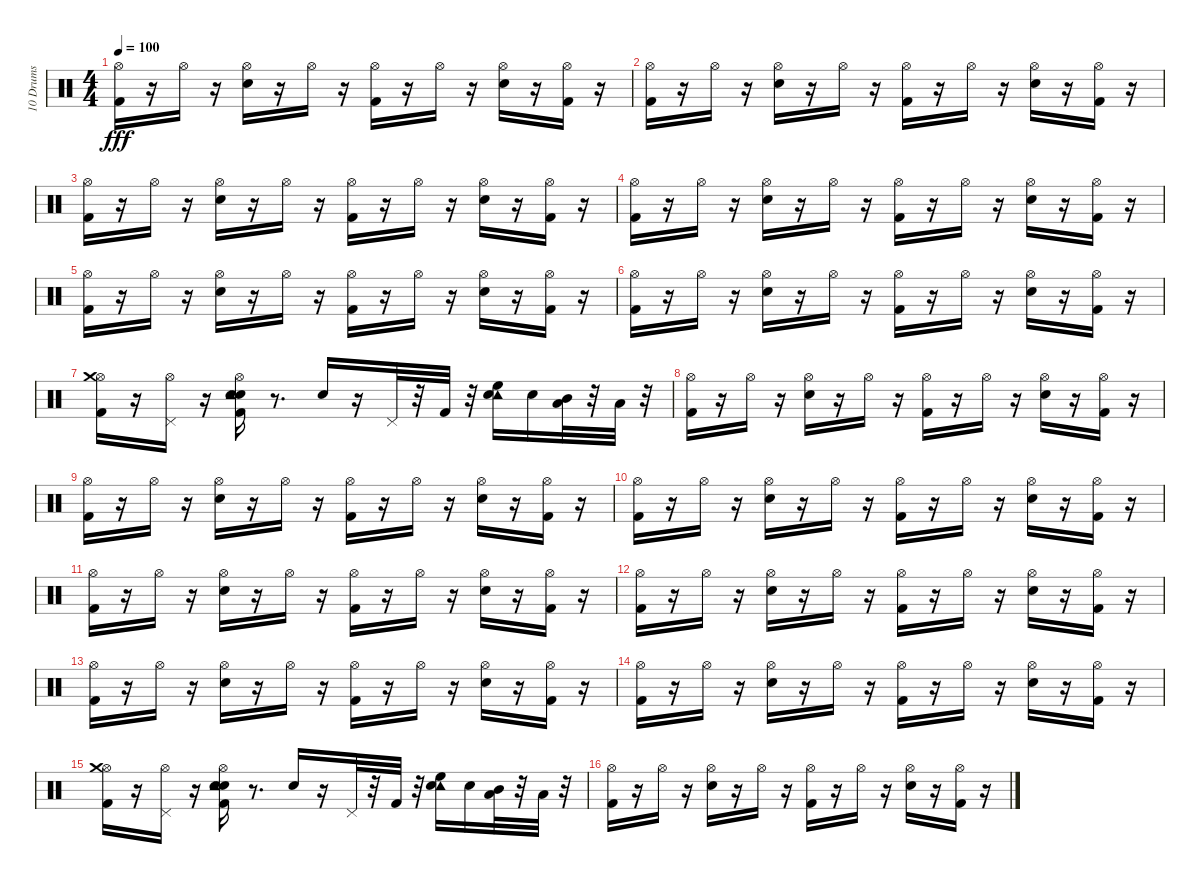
\track ("10 Drums" "10 Drums") {instrument percussion}
\staff {score}
\articulation defaults
\ts (4 4)
\tempo 100
\clef neutral
\ks c
("Hi-Hat (open)" "Kick (hit) 2").16{dy fff} r.16 "Hi-Hat (open)".16 r.16 ("Hi-Hat (open)" "Snare (hit) 2").16 r.16 "Hi-Hat (open)".16 r.16 ("Hi-Hat (open)" "Kick (hit) 2").16 r.16 "Hi-Hat (open)".16 r.16 ("Hi-Hat (open)" "Snare (hit) 2").16 r.16 ("Hi-Hat (open)" "Kick (hit) 2").16 r.16 |
("Hi-Hat (open)" "Kick (hit) 2").16 r.16 "Hi-Hat (open)".16 r.16 ("Hi-Hat (open)" "Snare (hit) 2").16 r.16 "Hi-Hat (open)".16 r.16 ("Hi-Hat (open)" "Kick (hit) 2").16 r.16 "Hi-Hat (open)".16 r.16 ("Hi-Hat (open)" "Snare (hit) 2").16 r.16 ("Hi-Hat (open)" "Kick (hit) 2").16 r.16 |
("Hi-Hat (open)" "Kick (hit) 2").16 r.16 "Hi-Hat (open)".16 r.16 ("Hi-Hat (open)" "Snare (hit) 2").16 r.16 "Hi-Hat (open)".16 r.16 ("Hi-Hat (open)" "Kick (hit) 2").16 r.16 "Hi-Hat (open)".16 r.16 ("Hi-Hat (open)" "Snare (hit) 2").16 r.16 ("Hi-Hat (open)" "Kick (hit) 2").16 r.16 |
("Hi-Hat (open)" "Kick (hit) 2").16 r.16 "Hi-Hat (open)".16 r.16 ("Hi-Hat (open)" "Snare (hit) 2").16 r.16 "Hi-Hat (open)".16 r.16 ("Hi-Hat (open)" "Kick (hit) 2").16 r.16 "Hi-Hat (open)".16 r.16 ("Hi-Hat (open)" "Snare (hit) 2").16 r.16 ("Hi-Hat (open)" "Kick (hit) 2").16 r.16 |
("Hi-Hat (open)" "Kick (hit) 2").16 r.16 "Hi-Hat (open)".16 r.16 ("Hi-Hat (open)" "Snare (hit) 2").16 r.16 "Hi-Hat (open)".16 r.16 ("Hi-Hat (open)" "Kick (hit) 2").16 r.16 "Hi-Hat (open)".16 r.16 ("Hi-Hat (open)" "Snare (hit) 2").16 r.16 ("Hi-Hat (open)" "Kick (hit) 2").16 r.16 |
("Hi-Hat (open)" "Kick (hit) 2").16 r.16 "Hi-Hat (open)".16 r.16 ("Hi-Hat (open)" "Snare (hit) 2").16 r.16 "Hi-Hat (open)".16 r.16 ("Hi-Hat (open)" "Kick (hit) 2").16 r.16 "Hi-Hat (open)".16 r.16 ("Hi-Hat (open)" "Snare (hit) 2").16 r.16 ("Hi-Hat (open)" "Kick (hit) 2").16 r.16 |
("Hi-Hat (open)" "Kick (hit) 2" "Crash medium (hit)").16 r.16 ("Hi-Hat (open)" "Pedal Hi-Hat (hit)").16 r.16 ("Hi-Hat (open)" "Snare (hit) 2" "Electric Snare (hit)" "Kick (hit) 2" "Tambourine (hit)").16 r.8{d} "Electric Snare (hit)".16 r.16 "Pedal Hi-Hat (hit)".32 r.32 "Kick (hit) 2".32 r.32 ("Tambourine (hit)" "Electric Snare (hit)" "High Floor Tom (hit)").16 "Electric Snare (hit)".16 ("Mid Tom (hit)" "Low Floor Tom (hit)").32 r.32 "Low Floor Tom (hit)".32 r.32 |
("Hi-Hat (open)" "Kick (hit) 2").16 r.16 "Hi-Hat (open)".16 r.16 ("Hi-Hat (open)" "Snare (hit) 2").16 r.16 "Hi-Hat (open)".16 r.16 ("Hi-Hat (open)" "Kick (hit) 2").16 r.16 "Hi-Hat (open)".16 r.16 ("Hi-Hat (open)" "Snare (hit) 2").16 r.16 ("Hi-Hat (open)" "Kick (hit) 2").16 r.16 |
("Hi-Hat (open)" "Kick (hit) 2").16 r.16 "Hi-Hat (open)".16 r.16 ("Hi-Hat (open)" "Snare (hit) 2").16 r.16 "Hi-Hat (open)".16 r.16 ("Hi-Hat (open)" "Kick (hit) 2").16 r.16 "Hi-Hat (open)".16 r.16 ("Hi-Hat (open)" "Snare (hit) 2").16 r.16 ("Hi-Hat (open)" "Kick (hit) 2").16 r.16 |
("Hi-Hat (open)" "Kick (hit) 2").16 r.16 "Hi-Hat (open)".16 r.16 ("Hi-Hat (open)" "Snare (hit) 2").16 r.16 "Hi-Hat (open)".16 r.16 ("Hi-Hat (open)" "Kick (hit) 2").16 r.16 "Hi-Hat (open)".16 r.16 ("Hi-Hat (open)" "Snare (hit) 2").16 r.16 ("Hi-Hat (open)" "Kick (hit) 2").16 r.16 |
("Hi-Hat (open)" "Kick (hit) 2").16 r.16 "Hi-Hat (open)".16 r.16 ("Hi-Hat (open)" "Snare (hit) 2").16 r.16 "Hi-Hat (open)".16 r.16 ("Hi-Hat (open)" "Kick (hit) 2").16 r.16 "Hi-Hat (open)".16 r.16 ("Hi-Hat (open)" "Snare (hit) 2").16 r.16 ("Hi-Hat (open)" "Kick (hit) 2").16 r.16 |
("Hi-Hat (open)" "Kick (hit) 2").16 r.16 "Hi-Hat (open)".16 r.16 ("Hi-Hat (open)" "Snare (hit) 2").16 r.16 "Hi-Hat (open)".16 r.16 ("Hi-Hat (open)" "Kick (hit) 2").16 r.16 "Hi-Hat (open)".16 r.16 ("Hi-Hat (open)" "Snare (hit) 2").16 r.16 ("Hi-Hat (open)" "Kick (hit) 2").16 r.16 |
("Hi-Hat (open)" "Kick (hit) 2").16 r.16 "Hi-Hat (open)".16 r.16 ("Hi-Hat (open)" "Snare (hit) 2").16 r.16 "Hi-Hat (open)".16 r.16 ("Hi-Hat (open)" "Kick (hit) 2").16 r.16 "Hi-Hat (open)".16 r.16 ("Hi-Hat (open)" "Snare (hit) 2").16 r.16 ("Hi-Hat (open)" "Kick (hit) 2").16 r.16 |
("Hi-Hat (open)" "Kick (hit) 2").16 r.16 "Hi-Hat (open)".16 r.16 ("Hi-Hat (open)" "Snare (hit) 2").16 r.16 "Hi-Hat (open)".16 r.16 ("Hi-Hat (open)" "Kick (hit) 2").16 r.16 "Hi-Hat (open)".16 r.16 ("Hi-Hat (open)" "Snare (hit) 2").16 r.16 ("Hi-Hat (open)" "Kick (hit) 2").16 r.16 |
("Hi-Hat (open)" "Kick (hit) 2" "Crash medium (hit)").16 r.16 ("Hi-Hat (open)" "Pedal Hi-Hat (hit)").16 r.16 ("Hi-Hat (open)" "Snare (hit) 2" "Electric Snare (hit)" "Kick (hit) 2" "Tambourine (hit)").16 r.8{d} "Electric Snare (hit)".16 r.16 "Pedal Hi-Hat (hit)".32 r.32 "Kick (hit) 2".32 r.32 ("Tambourine (hit)" "Electric Snare (hit)" "High Floor Tom (hit)").16 "Electric Snare (hit)".16 ("Mid Tom (hit)" "Low Floor Tom (hit)").32 r.32 "Low Floor Tom (hit)".32 r.32 |
("Hi-Hat (open)" "Kick (hit) 2").16 r.16 "Hi-Hat (open)".16 r.16 ("Hi-Hat (open)" "Snare (hit) 2").16 r.16 "Hi-Hat (open)".16 r.16 ("Hi-Hat (open)" "Kick (hit) 2").16 r.16 "Hi-Hat (open)".16 r.16 ("Hi-Hat (open)" "Snare (hit) 2").16 r.16 ("Hi-Hat (open)" "Kick (hit) 2").16 r.16
